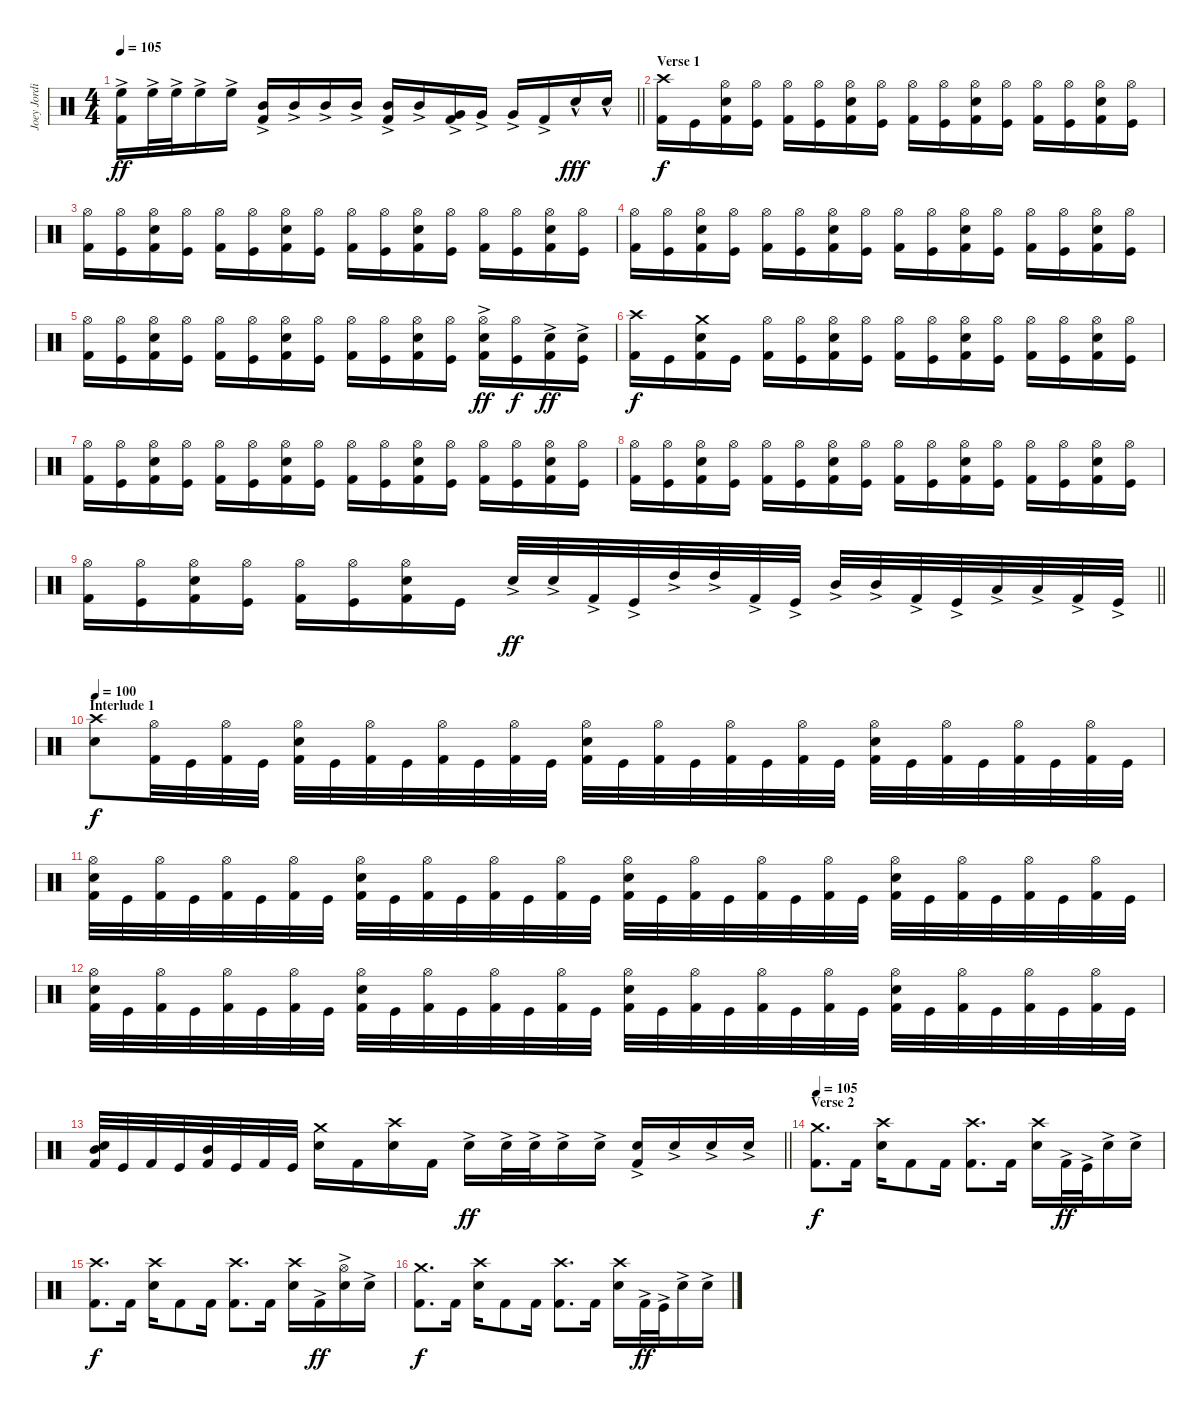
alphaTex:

\track ("Joey Jordinson (Drums)" "Joey Jordi") {instrument percussion}
\staff {score}
\articulation defaults
\ts (4 4)
\tempo 105
\clef neutral
\barLineRight lightlight
\ks c
("High Floor Tom (hit)"{ac} "Kick (hit) 2"{ac}).16{dy ff} "High Floor Tom (hit)"{ac}.32 "High Floor Tom (hit)"{ac}.32 "High Floor Tom (hit)"{ac}.16 "High Floor Tom (hit)"{ac}.16 ("Mid Tom (hit)"{ac} "Kick (hit) 2"{ac}).16 "Mid Tom (hit)"{ac}.16 "Mid Tom (hit)"{ac}.16 "Mid Tom (hit)"{ac}.16 ("Mid Tom (hit)"{ac} "Kick (hit) 2"{ac}).16 "Mid Tom (hit)"{ac}.16 ("Very Low Tom (hit)"{ac} "Kick (hit) 2"{ac}).16 "Very Low Tom (hit)"{ac}.16 "Very Low Tom (hit)"{ac}.16 "Kick (hit) 2"{ac}.16 "Electric Snare (hit)"{hac}.16{dy fff} "Electric Snare (hit)"{hac}.16 |
\section ("" "Verse 1")
("Crash high (hit)" "Kick (hit) 2").16{dy f} "Kick (hit)".16 ("Hi-Hat (open)" "Electric Snare (hit)" "Kick (hit) 2").16 ("Hi-Hat (open)" "Kick (hit)").16 ("Hi-Hat (open)" "Kick (hit) 2").16 ("Hi-Hat (open)" "Kick (hit)").16 ("Hi-Hat (open)" "Electric Snare (hit)" "Kick (hit) 2").16 ("Hi-Hat (open)" "Kick (hit)").16 ("Hi-Hat (open)" "Kick (hit) 2").16 ("Hi-Hat (open)" "Kick (hit)").16 ("Hi-Hat (open)" "Electric Snare (hit)" "Kick (hit) 2").16 ("Hi-Hat (open)" "Kick (hit)").16 ("Hi-Hat (open)" "Kick (hit) 2").16 ("Hi-Hat (open)" "Kick (hit)").16 ("Hi-Hat (open)" "Electric Snare (hit)" "Kick (hit) 2").16 ("Hi-Hat (open)" "Kick (hit)").16 |
("Hi-Hat (open)" "Kick (hit) 2").16 ("Hi-Hat (open)" "Kick (hit)").16 ("Hi-Hat (open)" "Electric Snare (hit)" "Kick (hit) 2").16 ("Hi-Hat (open)" "Kick (hit)").16 ("Hi-Hat (open)" "Kick (hit) 2").16 ("Hi-Hat (open)" "Kick (hit)").16 ("Hi-Hat (open)" "Electric Snare (hit)" "Kick (hit) 2").16 ("Hi-Hat (open)" "Kick (hit)").16 ("Hi-Hat (open)" "Kick (hit) 2").16 ("Hi-Hat (open)" "Kick (hit)").16 ("Hi-Hat (open)" "Electric Snare (hit)" "Kick (hit) 2").16 ("Hi-Hat (open)" "Kick (hit)").16 ("Hi-Hat (open)" "Kick (hit) 2").16 ("Hi-Hat (open)" "Kick (hit)").16 ("Hi-Hat (open)" "Electric Snare (hit)" "Kick (hit) 2").16 ("Hi-Hat (open)" "Kick (hit)").16 |
("Hi-Hat (open)" "Kick (hit) 2").16 ("Hi-Hat (open)" "Kick (hit)").16 ("Hi-Hat (open)" "Electric Snare (hit)" "Kick (hit) 2").16 ("Hi-Hat (open)" "Kick (hit)").16 ("Hi-Hat (open)" "Kick (hit) 2").16 ("Hi-Hat (open)" "Kick (hit)").16 ("Hi-Hat (open)" "Electric Snare (hit)" "Kick (hit) 2").16 ("Hi-Hat (open)" "Kick (hit)").16 ("Hi-Hat (open)" "Kick (hit) 2").16 ("Hi-Hat (open)" "Kick (hit)").16 ("Hi-Hat (open)" "Electric Snare (hit)" "Kick (hit) 2").16 ("Hi-Hat (open)" "Kick (hit)").16 ("Hi-Hat (open)" "Kick (hit) 2").16 ("Hi-Hat (open)" "Kick (hit)").16 ("Hi-Hat (open)" "Electric Snare (hit)" "Kick (hit) 2").16 ("Hi-Hat (open)" "Kick (hit)").16 |
("Hi-Hat (open)" "Kick (hit) 2").16 ("Hi-Hat (open)" "Kick (hit)").16 ("Hi-Hat (open)" "Electric Snare (hit)" "Kick (hit) 2").16 ("Hi-Hat (open)" "Kick (hit)").16 ("Hi-Hat (open)" "Kick (hit) 2").16 ("Hi-Hat (open)" "Kick (hit)").16 ("Hi-Hat (open)" "Electric Snare (hit)" "Kick (hit) 2").16 ("Hi-Hat (open)" "Kick (hit)").16 ("Hi-Hat (open)" "Kick (hit) 2").16 ("Hi-Hat (open)" "Kick (hit)").16 ("Hi-Hat (open)" "Electric Snare (hit)" "Kick (hit) 2").16 ("Hi-Hat (open)" "Kick (hit)").16 ("Hi-Hat (open)" "Electric Snare (hit)"{ac} "Kick (hit) 2").16{dy ff} ("Hi-Hat (open)" "Kick (hit)").16{dy f} ("Electric Snare (hit)"{ac} "Kick (hit) 2").16{dy ff} ("Electric Snare (hit)"{ac} "Kick (hit)").16 |
("Crash high (hit)" "Kick (hit) 2").16{dy f} "Kick (hit)".16 ("Crash medium (hit)" "Electric Snare (hit)" "Kick (hit) 2").16 "Kick (hit)".16 ("Hi-Hat (open)" "Kick (hit) 2").16 ("Hi-Hat (open)" "Kick (hit)").16 ("Hi-Hat (open)" "Electric Snare (hit)" "Kick (hit) 2").16 ("Hi-Hat (open)" "Kick (hit)").16 ("Hi-Hat (open)" "Kick (hit) 2").16 ("Hi-Hat (open)" "Kick (hit)").16 ("Hi-Hat (open)" "Electric Snare (hit)" "Kick (hit) 2").16 ("Hi-Hat (open)" "Kick (hit)").16 ("Hi-Hat (open)" "Kick (hit) 2").16 ("Hi-Hat (open)" "Kick (hit)").16 ("Hi-Hat (open)" "Electric Snare (hit)" "Kick (hit) 2").16 ("Hi-Hat (open)" "Kick (hit)").16 |
("Hi-Hat (open)" "Kick (hit) 2").16 ("Hi-Hat (open)" "Kick (hit)").16 ("Hi-Hat (open)" "Electric Snare (hit)" "Kick (hit) 2").16 ("Hi-Hat (open)" "Kick (hit)").16 ("Hi-Hat (open)" "Kick (hit) 2").16 ("Hi-Hat (open)" "Kick (hit)").16 ("Hi-Hat (open)" "Electric Snare (hit)" "Kick (hit) 2").16 ("Hi-Hat (open)" "Kick (hit)").16 ("Hi-Hat (open)" "Kick (hit) 2").16 ("Hi-Hat (open)" "Kick (hit)").16 ("Hi-Hat (open)" "Electric Snare (hit)" "Kick (hit) 2").16 ("Hi-Hat (open)" "Kick (hit)").16 ("Hi-Hat (open)" "Kick (hit) 2").16 ("Hi-Hat (open)" "Kick (hit)").16 ("Hi-Hat (open)" "Electric Snare (hit)" "Kick (hit) 2").16 ("Hi-Hat (open)" "Kick (hit)").16 |
("Hi-Hat (open)" "Kick (hit) 2").16 ("Hi-Hat (open)" "Kick (hit)").16 ("Hi-Hat (open)" "Electric Snare (hit)" "Kick (hit) 2").16 ("Hi-Hat (open)" "Kick (hit)").16 ("Hi-Hat (open)" "Kick (hit) 2").16 ("Hi-Hat (open)" "Kick (hit)").16 ("Hi-Hat (open)" "Electric Snare (hit)" "Kick (hit) 2").16 ("Hi-Hat (open)" "Kick (hit)").16 ("Hi-Hat (open)" "Kick (hit) 2").16 ("Hi-Hat (open)" "Kick (hit)").16 ("Hi-Hat (open)" "Electric Snare (hit)" "Kick (hit) 2").16 ("Hi-Hat (open)" "Kick (hit)").16 ("Hi-Hat (open)" "Kick (hit) 2").16 ("Hi-Hat (open)" "Kick (hit)").16 ("Hi-Hat (open)" "Electric Snare (hit)" "Kick (hit) 2").16 ("Hi-Hat (open)" "Kick (hit)").16 |
\barLineRight lightlight
("Hi-Hat (open)" "Kick (hit) 2").16 ("Hi-Hat (open)" "Kick (hit)").16 ("Hi-Hat (open)" "Electric Snare (hit)" "Kick (hit) 2").16 ("Hi-Hat (open)" "Kick (hit)").16 ("Hi-Hat (open)" "Kick (hit) 2").16 ("Hi-Hat (open)" "Kick (hit)").16 ("Hi-Hat (open)" "Electric Snare (hit)" "Kick (hit) 2").16 "Kick (hit)".16 "Electric Snare (hit)"{ac}.32{dy ff} "Electric Snare (hit)"{ac}.32 "Kick (hit) 2"{ac}.32 "Kick (hit)"{ac}.32 "High Tom (hit)"{ac}.32 "High Tom (hit)"{ac}.32 "Kick (hit) 2"{ac}.32 "Kick (hit)"{ac}.32 "Mid Tom (hit)"{ac}.32 "Mid Tom (hit)"{ac}.32 "Kick (hit) 2"{ac}.32 "Kick (hit)"{ac}.32 "Low Tom (hit)"{ac}.32 "Low Tom (hit)"{ac}.32 "Kick (hit) 2"{ac}.32 "Kick (hit)"{ac}.32 |
\section ("" "Interlude 1")
\tempo 100
("Crash high (hit)" "Electric Snare (hit)").8{dy f} ("Hi-Hat (open)" "Kick (hit) 2").32 "Kick (hit)".32 ("Hi-Hat (open)" "Kick (hit) 2").32 "Kick (hit)".32 ("Hi-Hat (open)" "Electric Snare (hit)" "Kick (hit) 2").32 "Kick (hit)".32 ("Hi-Hat (open)" "Kick (hit) 2").32 "Kick (hit)".32 ("Hi-Hat (open)" "Kick (hit) 2").32 "Kick (hit)".32 ("Hi-Hat (open)" "Kick (hit) 2").32 "Kick (hit)".32 ("Hi-Hat (open)" "Electric Snare (hit)" "Kick (hit) 2").32 "Kick (hit)".32 ("Hi-Hat (open)" "Kick (hit) 2").32 "Kick (hit)".32 ("Hi-Hat (open)" "Kick (hit) 2").32 "Kick (hit)".32 ("Hi-Hat (open)" "Kick (hit) 2").32 "Kick (hit)".32 ("Hi-Hat (open)" "Electric Snare (hit)" "Kick (hit) 2").32 "Kick (hit)".32 ("Hi-Hat (open)" "Kick (hit) 2").32 "Kick (hit)".32 ("Hi-Hat (open)" "Kick (hit) 2").32 "Kick (hit)".32 ("Hi-Hat (open)" "Kick (hit) 2").32 "Kick (hit)".32 |
("Hi-Hat (open)" "Electric Snare (hit)" "Kick (hit) 2").32 "Kick (hit)".32 ("Hi-Hat (open)" "Kick (hit) 2").32 "Kick (hit)".32 ("Hi-Hat (open)" "Kick (hit) 2").32 "Kick (hit)".32 ("Hi-Hat (open)" "Kick (hit) 2").32 "Kick (hit)".32 ("Hi-Hat (open)" "Electric Snare (hit)" "Kick (hit) 2").32 "Kick (hit)".32 ("Hi-Hat (open)" "Kick (hit) 2").32 "Kick (hit)".32 ("Hi-Hat (open)" "Kick (hit) 2").32 "Kick (hit)".32 ("Hi-Hat (open)" "Kick (hit) 2").32 "Kick (hit)".32 ("Hi-Hat (open)" "Electric Snare (hit)" "Kick (hit) 2").32 "Kick (hit)".32 ("Hi-Hat (open)" "Kick (hit) 2").32 "Kick (hit)".32 ("Hi-Hat (open)" "Kick (hit) 2").32 "Kick (hit)".32 ("Hi-Hat (open)" "Kick (hit) 2").32 "Kick (hit)".32 ("Hi-Hat (open)" "Electric Snare (hit)" "Kick (hit) 2").32 "Kick (hit)".32 ("Hi-Hat (open)" "Kick (hit) 2").32 "Kick (hit)".32 ("Hi-Hat (open)" "Kick (hit) 2").32 "Kick (hit)".32 ("Hi-Hat (open)" "Kick (hit) 2").32 "Kick (hit)".32 |
("Hi-Hat (open)" "Electric Snare (hit)" "Kick (hit) 2").32 "Kick (hit)".32 ("Hi-Hat (open)" "Kick (hit) 2").32 "Kick (hit)".32 ("Hi-Hat (open)" "Kick (hit) 2").32 "Kick (hit)".32 ("Hi-Hat (open)" "Kick (hit) 2").32 "Kick (hit)".32 ("Hi-Hat (open)" "Electric Snare (hit)" "Kick (hit) 2").32 "Kick (hit)".32 ("Hi-Hat (open)" "Kick (hit) 2").32 "Kick (hit)".32 ("Hi-Hat (open)" "Kick (hit) 2").32 "Kick (hit)".32 ("Hi-Hat (open)" "Kick (hit) 2").32 "Kick (hit)".32 ("Hi-Hat (open)" "Electric Snare (hit)" "Kick (hit) 2").32 "Kick (hit)".32 ("Hi-Hat (open)" "Kick (hit) 2").32 "Kick (hit)".32 ("Hi-Hat (open)" "Kick (hit) 2").32 "Kick (hit)".32 ("Hi-Hat (open)" "Kick (hit) 2").32 "Kick (hit)".32 ("Hi-Hat (open)" "Electric Snare (hit)" "Kick (hit) 2").32 "Kick (hit)".32 ("Hi-Hat (open)" "Kick (hit) 2").32 "Kick (hit)".32 ("Hi-Hat (open)" "Kick (hit) 2").32 "Kick (hit)".32 ("Hi-Hat (open)" "Kick (hit) 2").32 "Kick (hit)".32 |
\barLineRight lightlight
("Mid Tom (hit)" "Electric Snare (hit)" "Kick (hit) 2").32 "Kick (hit)".32 "Kick (hit) 2".32 "Kick (hit)".32 ("Mid Tom (hit)" "Kick (hit) 2").32 "Kick (hit)".32 "Kick (hit) 2".32 "Kick (hit)".32 ("Crash medium (hit)" "Electric Snare (hit)").16 "Kick (hit) 2".16 ("Crash high (hit)" "Electric Snare (hit)").16 "Kick (hit) 2".16 "Electric Snare (hit)"{ac}.16{dy ff} "Electric Snare (hit)"{ac}.32 "Electric Snare (hit)"{ac}.32 "Electric Snare (hit)"{ac}.16 "Electric Snare (hit)"{ac}.16 ("Electric Snare (hit)"{ac} "Kick (hit) 2").16 "Electric Snare (hit)"{ac}.16 "Electric Snare (hit)"{ac}.16 "Electric Snare (hit)"{ac}.16 |
\section ("" "Verse 2")
\tempo 105
("Crash medium (hit)" "Kick (hit) 2").8{d dy f} "Kick (hit) 2".16 ("Crash high (hit)" "Electric Snare (hit)").16 "Kick (hit) 2".8 "Kick (hit) 2".16 ("Crash high (hit)" "Kick (hit) 2").8{d} "Kick (hit) 2".16 ("Crash high (hit)" "Electric Snare (hit)").16 "Kick (hit) 2"{ac}.32{dy ff} "Kick (hit)"{ac}.32 "Electric Snare (hit)"{ac}.16 "Electric Snare (hit)"{ac}.16 |
("Crash high (hit)" "Kick (hit) 2").8{d dy f} "Kick (hit) 2".16 ("Crash high (hit)" "Electric Snare (hit)").16 "Kick (hit) 2".8 "Kick (hit) 2".16 ("Crash high (hit)" "Kick (hit) 2").8{d} "Kick (hit) 2".16 ("Crash high (hit)" "Electric Snare (hit)").16 "Kick (hit) 2"{ac}.16{dy ff} ("Hi-Hat (open)"{ac} "Electric Snare (hit)"{ac}).16 "Electric Snare (hit)"{ac}.16 |
("Crash medium (hit)" "Kick (hit) 2").8{d dy f} "Kick (hit) 2".16 ("Crash high (hit)" "Electric Snare (hit)").16 "Kick (hit) 2".8 "Kick (hit) 2".16 ("Crash high (hit)" "Kick (hit) 2").8{d} "Kick (hit) 2".16 ("Crash high (hit)" "Electric Snare (hit)").16 "Kick (hit) 2"{ac}.32{dy ff} "Kick (hit)"{ac}.32 "Electric Snare (hit)"{ac}.16 "Electric Snare (hit)"{ac}.16
